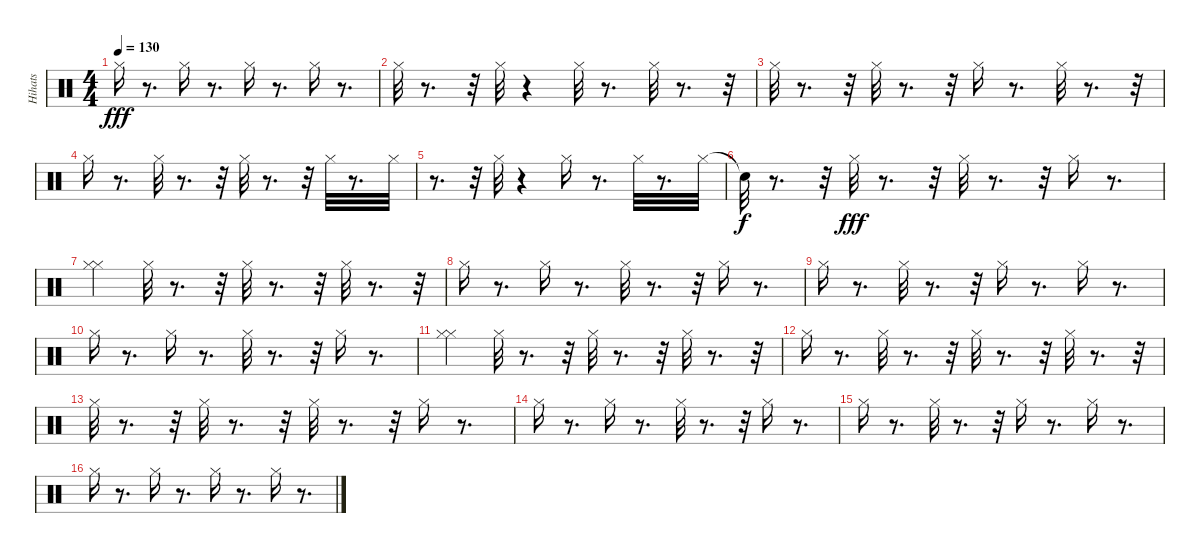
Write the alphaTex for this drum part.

\track ("Hihats" "Hihats") {instrument percussion}
\staff {score}
\articulation defaults
\ts (4 4)
\tempo 130
\clef neutral
\ks c "Hi-Hat (closed)".16{dy fff}
r.8{d} "Hi-Hat (closed)".16 r.8{d} "Hi-Hat (closed)".16 r.8{d} "Hi-Hat (closed)".16 r.8{d} |
"Hi-Hat (closed)".32 r.8{d} r.32 "Hi-Hat (closed)".32 r.4 "Hi-Hat (closed)".32 r.8{d} "Hi-Hat (closed)".32 r.8{d} r.32 |
"Hi-Hat (closed)".32 r.8{d} r.32 "Hi-Hat (closed)".32 r.8{d} r.32 "Hi-Hat (closed)".16 r.8{d} "Hi-Hat (closed)".32 r.8{d} r.32 |
"Hi-Hat (closed)".16 r.8{d} "Hi-Hat (closed)".32 r.8{d} r.32 "Hi-Hat (closed)".32 r.8{d} r.32 "Hi-Hat (closed)".32 r.8{d} "Hi-Hat (closed)".32 |
r.8{d} r.32 "Hi-Hat (closed)".32 r.4 "Hi-Hat (closed)".16 r.8{d} "Hi-Hat (closed)".32 r.8{d} "Hi-Hat (closed)".32 |
"Snare (hit)"{t}.32{dy f} r.8{d} r.32 "Hi-Hat (closed)".32{dy fff} r.8{d} r.32 "Hi-Hat (closed)".32 r.8{d} r.32 "Hi-Hat (closed)".16 r.8{d} |
("Hi-Hat (closed)" "Hi-Hat (closed)").4 "Hi-Hat (closed)".32 r.8{d} r.32 "Hi-Hat (closed)".32 r.8{d} r.32 "Hi-Hat (closed)".32 r.8{d} r.32 |
"Hi-Hat (closed)".16 r.8{d} "Hi-Hat (closed)".16 r.8{d} "Hi-Hat (closed)".32 r.8{d} r.32 "Hi-Hat (closed)".16 r.8{d} |
"Hi-Hat (closed)".16 r.8{d} "Hi-Hat (closed)".32 r.8{d} r.32 "Hi-Hat (closed)".16 r.8{d} "Hi-Hat (closed)".16 r.8{d} |
"Hi-Hat (closed)".16 r.8{d} "Hi-Hat (closed)".16 r.8{d} "Hi-Hat (closed)".32 r.8{d} r.32 "Hi-Hat (closed)".16 r.8{d} |
("Hi-Hat (closed)" "Hi-Hat (closed)").4 "Hi-Hat (closed)".32 r.8{d} r.32 "Hi-Hat (closed)".32 r.8{d} r.32 "Hi-Hat (closed)".32 r.8{d} r.32 |
"Hi-Hat (closed)".16 r.8{d} "Hi-Hat (closed)".32 r.8{d} r.32 "Hi-Hat (closed)".32 r.8{d} r.32 "Hi-Hat (closed)".32 r.8{d} r.32 |
"Hi-Hat (closed)".32 r.8{d} r.32 "Hi-Hat (closed)".32 r.8{d} r.32 "Hi-Hat (closed)".32 r.8{d} r.32 "Hi-Hat (closed)".16 r.8{d} |
"Hi-Hat (closed)".16 r.8{d} "Hi-Hat (closed)".16 r.8{d} "Hi-Hat (closed)".32 r.8{d} r.32 "Hi-Hat (closed)".16 r.8{d} |
"Hi-Hat (closed)".16 r.8{d} "Hi-Hat (closed)".32 r.8{d} r.32 "Hi-Hat (closed)".16 r.8{d} "Hi-Hat (closed)".16 r.8{d} |
"Hi-Hat (closed)".16 r.8{d} "Hi-Hat (closed)".16 r.8{d} "Hi-Hat (closed)".16 r.8{d} "Hi-Hat (closed)".16 r.8{d}
